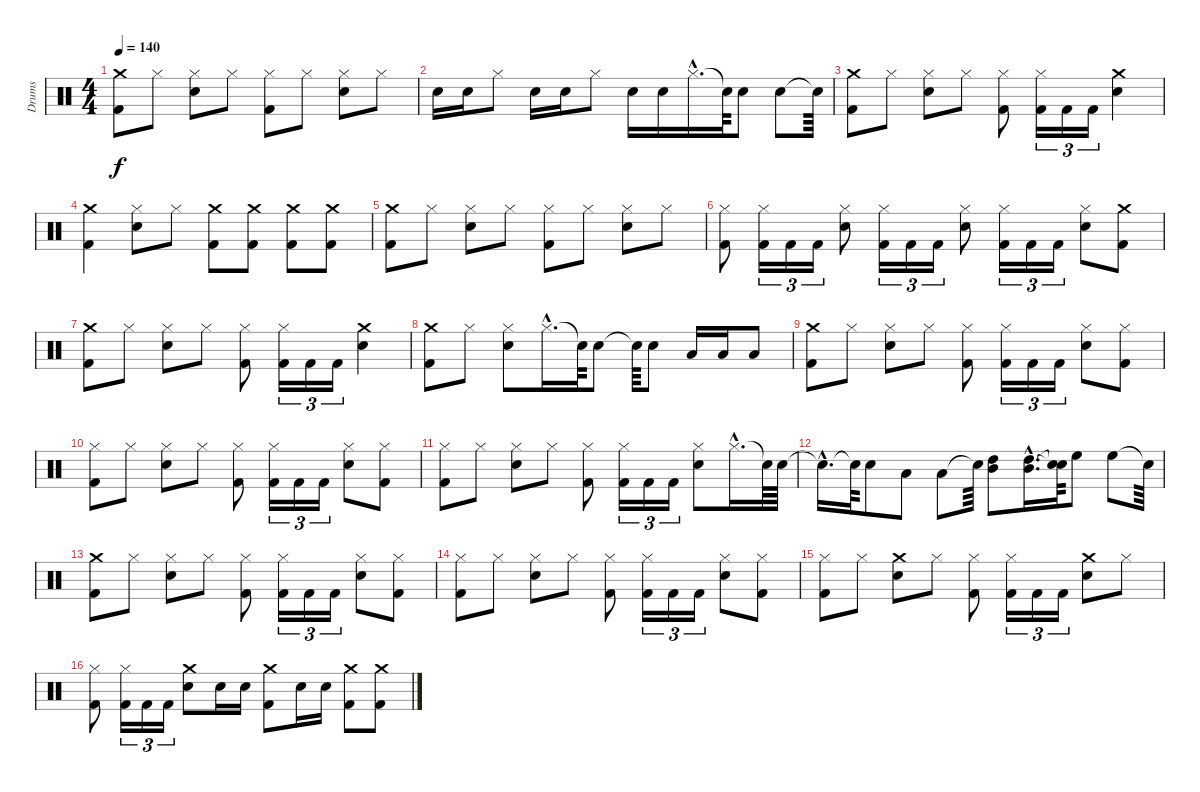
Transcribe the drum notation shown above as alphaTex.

\track ("Drums" "Drums") {instrument percussion}
\staff {score}
\articulation defaults
\ts (4 4)
\tempo 140
\clef neutral
\ks c
("Crash medium (hit)" "Kick (hit) 2").8{dy f} "Hi-Hat (closed)".8 ("Snare (hit) 2" "Hi-Hat (closed)").8 "Hi-Hat (closed)".8 ("Hi-Hat (closed)" "Kick (hit) 2").8 "Hi-Hat (closed)".8 ("Snare (hit) 2" "Hi-Hat (closed)").8 "Hi-Hat (closed)".8 |
"Snare (hit) 2".16 "Snare (hit) 2".16 "Hi-Hat (closed)".8 "Snare (hit) 2".16 "Snare (hit) 2".16 "Hi-Hat (closed)".8 "Snare (hit) 2".16 "Snare (hit) 2".16 "Hi-Hat (closed)"{hac}.16{d} "Snare (hit)"{t}.64 "Snare (hit) 2".8 "Snare (hit) 2".8 "Snare (hit)"{t}.64 |
("Crash medium (hit)" "Kick (hit) 2").8 "Hi-Hat (closed)".8 ("Snare (hit) 2" "Hi-Hat (closed)").8 "Hi-Hat (closed)".8 ("Hi-Hat (closed)" "Kick (hit) 2").8 ("Hi-Hat (closed)" "Kick (hit) 2").16{tu (3 2)} "Kick (hit) 2".16{tu (3 2)} "Kick (hit) 2".16{tu (3 2)} ("Snare (hit) 2" "Crash medium (hit)").4 |
("Kick (hit) 2" "Crash medium (hit)").4 ("Snare (hit) 2" "Hi-Hat (closed)").8 "Hi-Hat (closed)".8 ("Kick (hit) 2" "Crash medium (hit)").8 ("Kick (hit) 2" "Crash medium (hit)").8 ("Kick (hit) 2" "Crash medium (hit)").8 ("Kick (hit) 2" "Crash medium (hit)").8 |
("Crash medium (hit)" "Kick (hit) 2").8 "Hi-Hat (closed)".8 ("Snare (hit) 2" "Hi-Hat (closed)").8 "Hi-Hat (closed)".8 ("Hi-Hat (closed)" "Kick (hit) 2").8 "Hi-Hat (closed)".8 ("Snare (hit) 2" "Hi-Hat (closed)").8 "Hi-Hat (closed)".8 |
("Kick (hit) 2" "Hi-Hat (closed)").8 ("Kick (hit) 2" "Hi-Hat (closed)").16{tu (3 2)} "Kick (hit) 2".16{tu (3 2)} "Kick (hit) 2".16{tu (3 2)} ("Snare (hit) 2" "Hi-Hat (closed)").8 ("Kick (hit) 2" "Hi-Hat (closed)").16{tu (3 2)} "Kick (hit) 2".16{tu (3 2)} "Kick (hit) 2".16{tu (3 2)} ("Snare (hit) 2" "Hi-Hat (closed)").8 ("Kick (hit) 2" "Hi-Hat (closed)").16{tu (3 2)} "Kick (hit) 2".16{tu (3 2)} "Kick (hit) 2".16{tu (3 2)} ("Snare (hit) 2" "Hi-Hat (closed)").8 ("Crash medium (hit)" "Kick (hit) 2").8 |
("Crash medium (hit)" "Kick (hit) 2").8 "Hi-Hat (closed)".8 ("Snare (hit) 2" "Hi-Hat (closed)").8 "Hi-Hat (closed)".8 ("Hi-Hat (closed)" "Kick (hit) 2").8 ("Hi-Hat (closed)" "Kick (hit) 2").16{tu (3 2)} "Kick (hit) 2".16{tu (3 2)} "Kick (hit) 2".16{tu (3 2)} ("Snare (hit) 2" "Crash medium (hit)").4 |
("Kick (hit) 2" "Crash medium (hit)").8 "Hi-Hat (closed)".8 ("Snare (hit) 2" "Hi-Hat (closed)").8 "Hi-Hat (closed)"{hac}.16{d} "Snare (hit)"{t}.64 "Snare (hit) 2".8 "Snare (hit)"{t}.64 "Snare (hit) 2".8 "Low Tom (hit)".16 "Low Tom (hit)".16 "Low Tom (hit)".8 |
("Crash medium (hit)" "Kick (hit) 2").8 "Hi-Hat (closed)".8 ("Snare (hit) 2" "Hi-Hat (closed)").8 "Hi-Hat (closed)".8 ("Kick (hit) 2" "Hi-Hat (closed)").8 ("Kick (hit) 2" "Hi-Hat (closed)").16{tu (3 2)} "Kick (hit) 2".16{tu (3 2)} "Kick (hit) 2".16{tu (3 2)} ("Snare (hit) 2" "Hi-Hat (closed)").8 ("Kick (hit) 2" "Hi-Hat (closed)").8 |
("Hi-Hat (closed)" "Kick (hit) 2").8 "Hi-Hat (closed)".8 ("Snare (hit) 2" "Hi-Hat (closed)").8 "Hi-Hat (closed)".8 ("Kick (hit) 2" "Hi-Hat (closed)").8 ("Kick (hit) 2" "Hi-Hat (closed)").16{tu (3 2)} "Kick (hit) 2".16{tu (3 2)} "Kick (hit) 2".16{tu (3 2)} ("Snare (hit) 2" "Hi-Hat (closed)").8 ("Kick (hit) 2" "Hi-Hat (closed)").8 |
("Hi-Hat (closed)" "Kick (hit) 2").8 "Hi-Hat (closed)".8 ("Snare (hit) 2" "Hi-Hat (closed)").8 "Hi-Hat (closed)".8 ("Kick (hit) 2" "Hi-Hat (closed)").8 ("Kick (hit) 2" "Hi-Hat (closed)").16{tu (3 2)} "Kick (hit) 2".16{tu (3 2)} "Kick (hit) 2".16{tu (3 2)} ("Snare (hit) 2" "Hi-Hat (closed)").8 "Hi-Hat (closed)"{hac}.16{d} "Snare (hit)"{t}.64 "Snare (hit) 2".64 |
"Snare (hit)"{hac t}.16{d} "Snare (hit)"{t}.64 "Snare (hit) 2".8 "Low Tom (hit)".8 "Low Tom (hit)".8 "Snare (hit)"{t}.64 ("High Tom (hit)" "Mid Tom (hit)").8 ("High Tom (hit)"{hac} "Mid Tom (hit)"{hac}).16{d} ("Snare (hit)"{t} "Snare (hit)"{t}).64 "High Floor Tom (hit)".8 "High Floor Tom (hit)".8 "Snare (hit)"{t}.64 |
("Crash medium (hit)" "Kick (hit) 2").8 "Hi-Hat (closed)".8 ("Snare (hit) 2" "Hi-Hat (closed)").8 "Hi-Hat (closed)".8 ("Kick (hit) 2" "Hi-Hat (closed)").8 ("Kick (hit) 2" "Hi-Hat (closed)").16{tu (3 2)} "Kick (hit) 2".16{tu (3 2)} "Kick (hit) 2".16{tu (3 2)} ("Snare (hit) 2" "Hi-Hat (closed)").8 ("Kick (hit) 2" "Hi-Hat (closed)").8 |
("Hi-Hat (closed)" "Kick (hit) 2").8 "Hi-Hat (closed)".8 ("Snare (hit) 2" "Hi-Hat (closed)").8 "Hi-Hat (closed)".8 ("Kick (hit) 2" "Hi-Hat (closed)").8 ("Kick (hit) 2" "Hi-Hat (closed)").16{tu (3 2)} "Kick (hit) 2".16{tu (3 2)} "Kick (hit) 2".16{tu (3 2)} ("Snare (hit) 2" "Hi-Hat (closed)").8 ("Kick (hit) 2" "Hi-Hat (closed)").8 |
("Hi-Hat (closed)" "Kick (hit) 2").8 "Hi-Hat (closed)".8 ("Crash medium (hit)" "Snare (hit) 2").8 "Hi-Hat (closed)".8 ("Kick (hit) 2" "Hi-Hat (closed)").8 ("Kick (hit) 2" "Hi-Hat (closed)").16{tu (3 2)} "Kick (hit) 2".16{tu (3 2)} "Kick (hit) 2".16{tu (3 2)} ("Crash medium (hit)" "Snare (hit) 2").8 "Hi-Hat (closed)".8 |
("Kick (hit) 2" "Hi-Hat (closed)").8 ("Kick (hit) 2" "Hi-Hat (closed)").16{tu (3 2)} "Kick (hit) 2".16{tu (3 2)} "Kick (hit) 2".16{tu (3 2)} ("Snare (hit) 2" "Crash medium (hit)").8 "Snare (hit) 2".16 "Snare (hit) 2".16 ("Kick (hit) 2" "Crash medium (hit)").8 "Snare (hit) 2".16 "Snare (hit) 2".16 ("Kick (hit) 2" "Crash medium (hit)").8 ("Kick (hit) 2" "Crash medium (hit)").8
